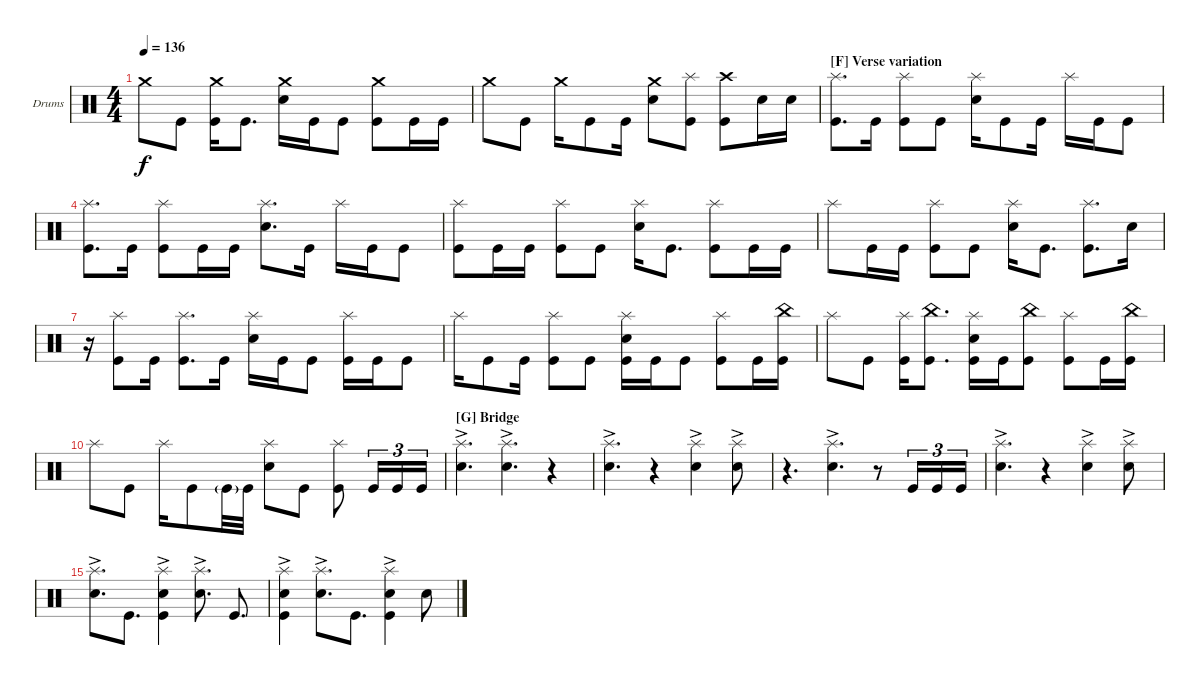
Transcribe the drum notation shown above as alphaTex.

\defaultSystemsLayout 4
\bracketExtendMode groupsimilarinstruments
\firstSystemTrackNameOrientation horizontal
\otherSystemsTrackNameOrientation horizontal
\defaultBarNumberDisplay FirstOfSystem
\track ("Drumkit" "Drums") {multiBarRest instrument percussion}
\staff {score}
\articulation defaults
\ts (4 4)
\tempo 136
\clef neutral
\ks c "Crash medium (hit)".8{dy f} "Kick (hit)".8
("Crash medium (hit)" "Kick (hit)").16 "Kick (hit)".8{d} ("Crash medium (hit)" "Snare (hit) 2").16 "Kick (hit)".16 "Kick (hit)".8 ("Crash medium (hit)" "Kick (hit)").8 "Kick (hit)".16 "Kick (hit)".16 |
"Crash medium (hit)".8 "Kick (hit)".8 "Crash medium (hit)".16 "Kick (hit)".8 "Kick (hit)".16 ("Crash medium (hit)" "Snare (hit) 2").8 ("Kick (hit)" "Splash (hit)").8 ("Kick (hit)" "Crash high (hit)").8 "Snare (hit) 2".16 "Snare (hit) 2".16 |
\section ("F" "Verse variation")
("Splash (hit)" "Kick (hit)").8{d} "Kick (hit)".16 ("Splash (hit)" "Kick (hit)").8 "Kick (hit)".8 ("Splash (hit)" "Snare (hit) 2").16 "Kick (hit)".8 "Kick (hit)".16 "Splash (hit)".16 "Kick (hit)".16 "Kick (hit)".8 |
("Splash (hit)" "Kick (hit)").8{d} "Kick (hit)".16 ("Splash (hit)" "Kick (hit)").8 "Kick (hit)".16 "Kick (hit)".16 ("Splash (hit)" "Snare (hit) 2").8{d} "Kick (hit)".16 "Splash (hit)".16 "Kick (hit)".16 "Kick (hit)".8 |
("Splash (hit)" "Kick (hit)").8 "Kick (hit)".16 "Kick (hit)".16 ("Splash (hit)" "Kick (hit)").8 "Kick (hit)".8 ("Splash (hit)" "Snare (hit) 2").16 "Kick (hit)".8{d} ("Splash (hit)" "Kick (hit)").8 "Kick (hit)".16 "Kick (hit)".16 |
"Splash (hit)".8 "Kick (hit)".16 "Kick (hit)".16 ("Splash (hit)" "Kick (hit)").8 "Kick (hit)".8 ("Splash (hit)" "Snare (hit) 2").16 "Kick (hit)".8{d} ("Splash (hit)" "Kick (hit)").8{d} "Snare (hit) 2".16 |
r.16 ("Kick (hit)" "Splash (hit)").8 "Kick (hit)".16 ("Kick (hit)" "Splash (hit)").8{d} "Kick (hit)".16 ("Snare (hit) 2" "Splash (hit)").16 "Kick (hit)".16 "Kick (hit)".8 ("Kick (hit)" "Splash (hit)").16 "Kick (hit)".16 "Kick (hit)".8 |
"Splash (hit)".16 "Kick (hit)".8 "Kick (hit)".16 ("Kick (hit)" "Splash (hit)").8 "Kick (hit)".8 ("Kick (hit)" "Splash (hit)" "Snare (hit) 2").16 "Kick (hit)".16 "Kick (hit)".8 ("Kick (hit)" "Splash (hit)").8 "Kick (hit)".16 ("Kick (hit)" "China (hit)").16 |
"Splash (hit)".8 "Kick (hit)".8 ("Kick (hit)" "Splash (hit)").16 ("Kick (hit)" "China (hit)").8{d} ("Kick (hit)" "Splash (hit)" "Snare (hit) 2").16 "Kick (hit)".16 ("Kick (hit)" "China (hit)").8 ("Kick (hit)" "Splash (hit)").8 "Kick (hit)".16 ("Kick (hit)" "China (hit)").16 |
"Splash (hit)".8 "Kick (hit)".8 "Splash (hit)".16 "Kick (hit)".8 "Kick (hit)"{g}.32 "Kick (hit)".32 ("Splash (hit)" "Snare (hit) 2").8 "Kick (hit)".8 ("Kick (hit)" "Splash (hit)").8 "Kick (hit)".16{tu (3 2)} "Kick (hit)".16{tu (3 2)} "Kick (hit)".16{tu (3 2)} |
\section ("G" "Bridge")
("Splash (hit)" "Snare (hit) 2"{ac}).4{d} ("Splash (hit)" "Snare (hit) 2"{ac}).4{d} r.4 |
("Splash (hit)" "Snare (hit) 2"{ac}).4{d} r.4 ("Splash (hit)" "Snare (hit) 2"{ac}).4 ("Splash (hit)" "Snare (hit) 2"{ac}).8 |
r.4{d} ("Splash (hit)" "Snare (hit) 2"{ac}).4{d} r.8 "Kick (hit)".16{tu (3 2)} "Kick (hit)".16{tu (3 2)} "Kick (hit)".16{tu (3 2)} |
("Splash (hit)" "Snare (hit) 2"{ac}).4{d} r.4 ("Splash (hit)" "Snare (hit) 2"{ac}).4 ("Splash (hit)" "Snare (hit) 2"{ac}).8 |
("Splash (hit)" "Snare (hit) 2"{ac}).8{d} "Kick (hit)".8{d} ("Snare (hit) 2"{ac} "Kick (hit)" "Splash (hit)").4 ("Splash (hit)" "Snare (hit) 2"{ac}).8{d} "Kick (hit)".8{d} |
("Snare (hit) 2"{ac} "Kick (hit)" "Splash (hit)").4 ("Splash (hit)" "Snare (hit) 2"{ac}).8{d} "Kick (hit)".8{d} ("Snare (hit) 2"{ac} "Kick (hit)" "Splash (hit)").4 "Snare (hit) 2".8
